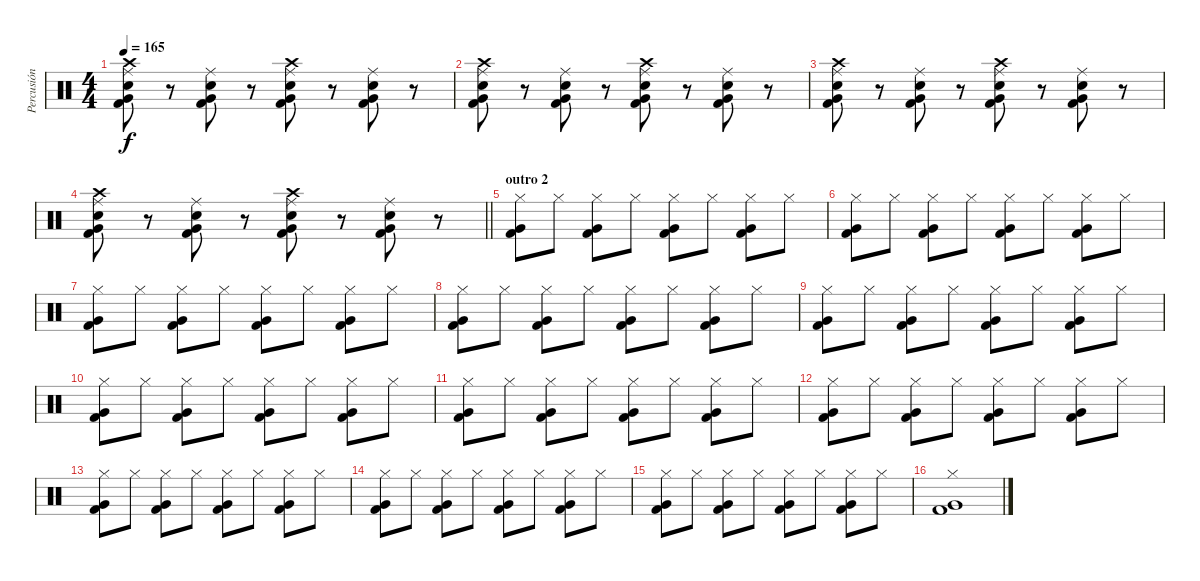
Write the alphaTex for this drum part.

\track ("Percusión" "Percusión") {instrument percussion}
\staff {score}
\articulation defaults
\ts (4 4)
\tempo 165
\clef neutral
\ks c
("Crash high (hit)" "Ride (middle)" "Electric Snare (hit)" "Kick (hit) 2" "Very Low Tom (hit)").8{dy f} r.8 ("Ride (middle)" "Electric Snare (hit)" "Kick (hit) 2" "Very Low Tom (hit)").8 r.8 ("Crash high (hit)" "Ride (middle)" "Electric Snare (hit)" "Kick (hit) 2" "Very Low Tom (hit)").8 r.8 ("Ride (middle)" "Electric Snare (hit)" "Kick (hit) 2" "Very Low Tom (hit)").8 r.8 |
("Crash high (hit)" "Ride (middle)" "Electric Snare (hit)" "Kick (hit) 2" "Very Low Tom (hit)").8 r.8 ("Ride (middle)" "Electric Snare (hit)" "Kick (hit) 2" "Very Low Tom (hit)").8 r.8 ("Crash high (hit)" "Ride (middle)" "Electric Snare (hit)" "Kick (hit) 2" "Very Low Tom (hit)").8 r.8 ("Ride (middle)" "Electric Snare (hit)" "Kick (hit) 2" "Very Low Tom (hit)").8 r.8 |
("Crash high (hit)" "Ride (middle)" "Electric Snare (hit)" "Kick (hit) 2" "Very Low Tom (hit)").8 r.8 ("Ride (middle)" "Electric Snare (hit)" "Kick (hit) 2" "Very Low Tom (hit)").8 r.8 ("Crash high (hit)" "Ride (middle)" "Electric Snare (hit)" "Kick (hit) 2" "Very Low Tom (hit)").8 r.8 ("Ride (middle)" "Electric Snare (hit)" "Kick (hit) 2" "Very Low Tom (hit)").8 r.8 |
\barLineRight lightlight
("Crash high (hit)" "Ride (middle)" "Electric Snare (hit)" "Kick (hit) 2" "Very Low Tom (hit)").8 r.8 ("Ride (middle)" "Electric Snare (hit)" "Kick (hit) 2" "Very Low Tom (hit)").8 r.8 ("Crash high (hit)" "Ride (middle)" "Electric Snare (hit)" "Kick (hit) 2" "Very Low Tom (hit)").8 r.8 ("Ride (middle)" "Electric Snare (hit)" "Kick (hit) 2" "Very Low Tom (hit)").8 r.8 |
\section ("" "outro 2")
("Hi-Hat (closed)" "Kick (hit) 2" "Very Low Tom (hit)").8 "Hi-Hat (closed)".8 ("Hi-Hat (closed)" "Kick (hit) 2" "Very Low Tom (hit)").8 "Hi-Hat (closed)".8 ("Hi-Hat (closed)" "Very Low Tom (hit)" "Kick (hit) 2").8 "Hi-Hat (closed)".8 ("Hi-Hat (closed)" "Kick (hit) 2" "Very Low Tom (hit)").8 "Hi-Hat (closed)".8 |
("Hi-Hat (closed)" "Kick (hit) 2" "Very Low Tom (hit)").8 "Hi-Hat (closed)".8 ("Hi-Hat (closed)" "Kick (hit) 2" "Very Low Tom (hit)").8 "Hi-Hat (closed)".8 ("Hi-Hat (closed)" "Very Low Tom (hit)" "Kick (hit) 2").8 "Hi-Hat (closed)".8 ("Hi-Hat (closed)" "Kick (hit) 2" "Very Low Tom (hit)").8 "Hi-Hat (closed)".8 |
("Hi-Hat (closed)" "Kick (hit) 2" "Very Low Tom (hit)").8 "Hi-Hat (closed)".8 ("Hi-Hat (closed)" "Kick (hit) 2" "Very Low Tom (hit)").8 "Hi-Hat (closed)".8 ("Hi-Hat (closed)" "Very Low Tom (hit)" "Kick (hit) 2").8 "Hi-Hat (closed)".8 ("Hi-Hat (closed)" "Kick (hit) 2" "Very Low Tom (hit)").8 "Hi-Hat (closed)".8 |
("Hi-Hat (closed)" "Kick (hit) 2" "Very Low Tom (hit)").8 "Hi-Hat (closed)".8 ("Hi-Hat (closed)" "Kick (hit) 2" "Very Low Tom (hit)").8 "Hi-Hat (closed)".8 ("Hi-Hat (closed)" "Very Low Tom (hit)" "Kick (hit) 2").8 "Hi-Hat (closed)".8 ("Hi-Hat (closed)" "Kick (hit) 2" "Very Low Tom (hit)").8 "Hi-Hat (closed)".8 |
("Hi-Hat (closed)" "Kick (hit) 2" "Very Low Tom (hit)").8 "Hi-Hat (closed)".8 ("Hi-Hat (closed)" "Kick (hit) 2" "Very Low Tom (hit)").8 "Hi-Hat (closed)".8 ("Hi-Hat (closed)" "Very Low Tom (hit)" "Kick (hit) 2").8 "Hi-Hat (closed)".8 ("Hi-Hat (closed)" "Kick (hit) 2" "Very Low Tom (hit)").8 "Hi-Hat (closed)".8 |
("Hi-Hat (closed)" "Kick (hit) 2" "Very Low Tom (hit)").8 "Hi-Hat (closed)".8 ("Hi-Hat (closed)" "Kick (hit) 2" "Very Low Tom (hit)").8 "Hi-Hat (closed)".8 ("Hi-Hat (closed)" "Very Low Tom (hit)" "Kick (hit) 2").8 "Hi-Hat (closed)".8 ("Hi-Hat (closed)" "Kick (hit) 2" "Very Low Tom (hit)").8 "Hi-Hat (closed)".8 |
("Hi-Hat (closed)" "Kick (hit) 2" "Very Low Tom (hit)").8 "Hi-Hat (closed)".8 ("Hi-Hat (closed)" "Kick (hit) 2" "Very Low Tom (hit)").8 "Hi-Hat (closed)".8 ("Hi-Hat (closed)" "Very Low Tom (hit)" "Kick (hit) 2").8 "Hi-Hat (closed)".8 ("Hi-Hat (closed)" "Kick (hit) 2" "Very Low Tom (hit)").8 "Hi-Hat (closed)".8 |
("Hi-Hat (closed)" "Kick (hit) 2" "Very Low Tom (hit)").8 "Hi-Hat (closed)".8 ("Hi-Hat (closed)" "Kick (hit) 2" "Very Low Tom (hit)").8 "Hi-Hat (closed)".8 ("Hi-Hat (closed)" "Very Low Tom (hit)" "Kick (hit) 2").8 "Hi-Hat (closed)".8 ("Hi-Hat (closed)" "Kick (hit) 2" "Very Low Tom (hit)").8 "Hi-Hat (closed)".8 |
("Hi-Hat (closed)" "Kick (hit) 2" "Very Low Tom (hit)").8 "Hi-Hat (closed)".8 ("Hi-Hat (closed)" "Kick (hit) 2" "Very Low Tom (hit)").8 "Hi-Hat (closed)".8 ("Hi-Hat (closed)" "Very Low Tom (hit)" "Kick (hit) 2").8 "Hi-Hat (closed)".8 ("Hi-Hat (closed)" "Kick (hit) 2" "Very Low Tom (hit)").8 "Hi-Hat (closed)".8 |
("Hi-Hat (closed)" "Kick (hit) 2" "Very Low Tom (hit)").8 "Hi-Hat (closed)".8 ("Hi-Hat (closed)" "Kick (hit) 2" "Very Low Tom (hit)").8 "Hi-Hat (closed)".8 ("Hi-Hat (closed)" "Very Low Tom (hit)" "Kick (hit) 2").8 "Hi-Hat (closed)".8 ("Hi-Hat (closed)" "Kick (hit) 2" "Very Low Tom (hit)").8 "Hi-Hat (closed)".8 |
("Hi-Hat (closed)" "Kick (hit) 2" "Very Low Tom (hit)").8 "Hi-Hat (closed)".8 ("Hi-Hat (closed)" "Kick (hit) 2" "Very Low Tom (hit)").8 "Hi-Hat (closed)".8 ("Hi-Hat (closed)" "Very Low Tom (hit)" "Kick (hit) 2").8 "Hi-Hat (closed)".8 ("Hi-Hat (closed)" "Kick (hit) 2" "Very Low Tom (hit)").8 "Hi-Hat (closed)".8 |
("Hi-Hat (closed)" "Kick (hit) 2" "Very Low Tom (hit)").1
